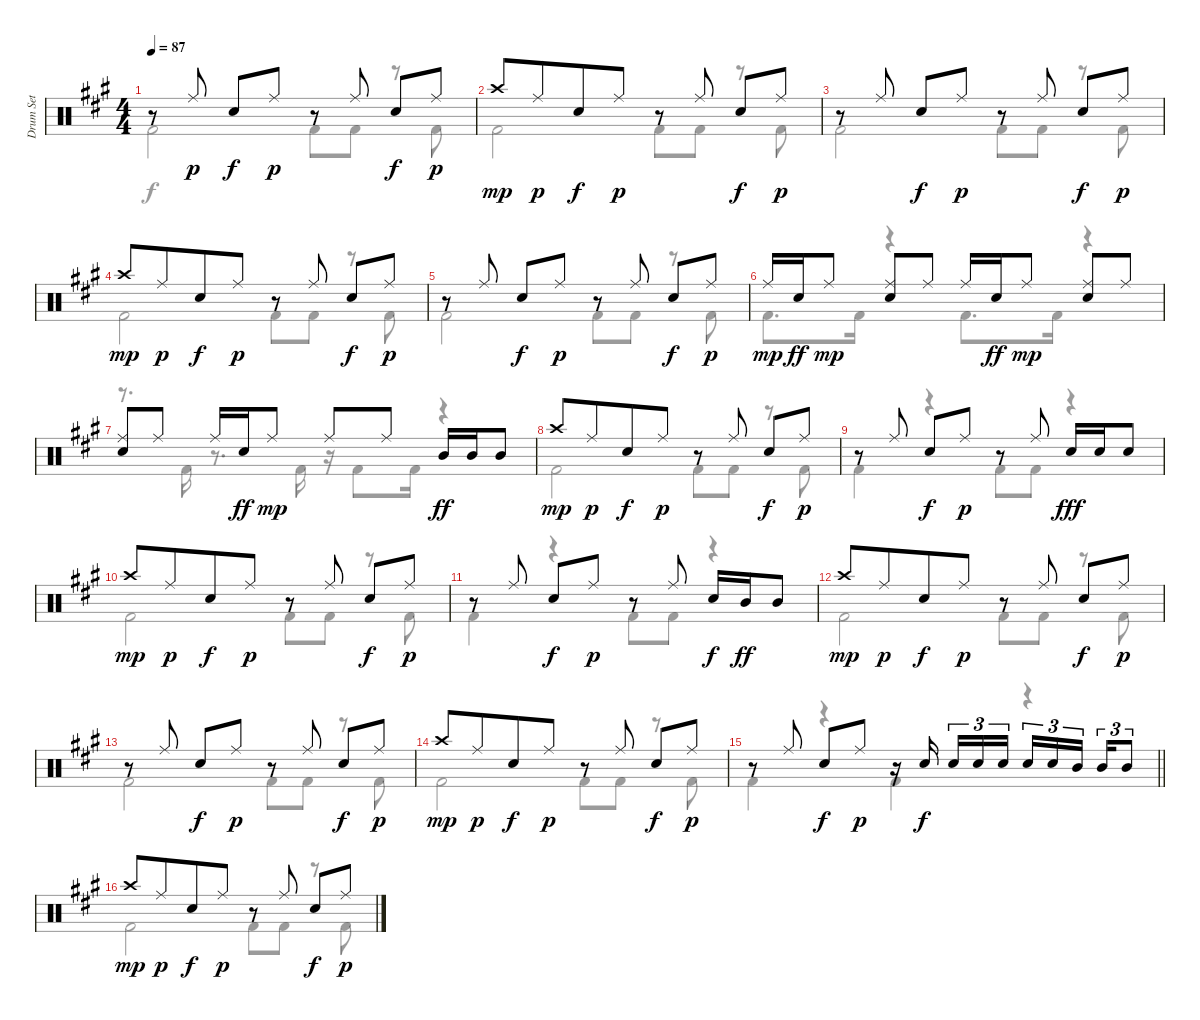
\track ("Drum Set" "Drum Set") {instrument percussion}
\staff {score}
\articulation defaults
\voice
\ts (4 4)
\tempo 87
\clef neutral
\ks f#minor
r.8{dy p} "Ride (middle)".8 "Electric Snare (hit)".8{dy f} "Ride (middle)".8{dy p} r.8 "Ride (middle)".8 "Electric Snare (hit)".8{dy f} "Ride (middle)".8{dy p} |
"Crash high (hit)".8{dy mp} "Ride (middle)".8{dy p beam merge} "Electric Snare (hit)".8{dy f} "Ride (middle)".8{dy p} r.8 "Ride (middle)".8 "Electric Snare (hit)".8{dy f} "Ride (middle)".8{dy p} |
r.8 "Ride (middle)".8 "Electric Snare (hit)".8{dy f} "Ride (middle)".8{dy p} r.8 "Ride (middle)".8 "Electric Snare (hit)".8{dy f} "Ride (middle)".8{dy p} |
"Crash high (hit)".8{dy mp} "Ride (middle)".8{dy p beam merge} "Electric Snare (hit)".8{dy f} "Ride (middle)".8{dy p} r.8 "Ride (middle)".8 "Electric Snare (hit)".8{dy f} "Ride (middle)".8{dy p} |
r.8 "Ride (middle)".8 "Electric Snare (hit)".8{dy f} "Ride (middle)".8{dy p} r.8 "Ride (middle)".8 "Electric Snare (hit)".8{dy f} "Ride (middle)".8{dy p} |
"Ride (middle)".16{dy mp} "Electric Snare (hit)".16{dy ff} "Ride (middle)".8{dy mp} ("Electric Snare (hit)" "Ride (middle)").8 "Ride (middle)".8 "Ride (middle)".16 "Electric Snare (hit)".16{dy ff} "Ride (middle)".8{dy mp} ("Electric Snare (hit)" "Ride (middle)").8 "Ride (middle)".8 |
("Electric Snare (hit)" "Ride (middle)").8 "Ride (middle)".8 "Ride (middle)".16 "Electric Snare (hit)".16{dy ff} "Ride (middle)".8{dy mp} "Ride (middle)".8 "Ride (middle)".8 "Mid Tom (hit)".16{dy ff} "Mid Tom (hit)".16 "Mid Tom (hit)".8 |
"Crash high (hit)".8{dy mp} "Ride (middle)".8{dy p beam merge} "Electric Snare (hit)".8{dy f} "Ride (middle)".8{dy p} r.8 "Ride (middle)".8 "Electric Snare (hit)".8{dy f} "Ride (middle)".8{dy p} |
r.8 "Ride (middle)".8 "Electric Snare (hit)".8{dy f} "Ride (middle)".8{dy p} r.8 "Ride (middle)".8 "Electric Snare (hit)".16{dy fff} "Electric Snare (hit)".16 "Electric Snare (hit)".8 |
"Crash high (hit)".8{dy mp} "Ride (middle)".8{dy p beam merge} "Electric Snare (hit)".8{dy f} "Ride (middle)".8{dy p} r.8 "Ride (middle)".8 "Electric Snare (hit)".8{dy f} "Ride (middle)".8{dy p} |
r.8 "Ride (middle)".8 "Electric Snare (hit)".8{dy f} "Ride (middle)".8{dy p} r.8 "Ride (middle)".8 "Electric Snare (hit)".16{dy f} "Mid Tom (hit)".16{dy ff} "Mid Tom (hit)".8 |
"Crash high (hit)".8{dy mp} "Ride (middle)".8{dy p beam merge} "Electric Snare (hit)".8{dy f} "Ride (middle)".8{dy p} r.8 "Ride (middle)".8 "Electric Snare (hit)".8{dy f} "Ride (middle)".8{dy p} |
r.8 "Ride (middle)".8 "Electric Snare (hit)".8{dy f} "Ride (middle)".8{dy p} r.8 "Ride (middle)".8 "Electric Snare (hit)".8{dy f} "Ride (middle)".8{dy p} |
"Crash high (hit)".8{dy mp} "Ride (middle)".8{dy p beam merge} "Electric Snare (hit)".8{dy f} "Ride (middle)".8{dy p} r.8 "Ride (middle)".8 "Electric Snare (hit)".8{dy f} "Ride (middle)".8{dy p} |
\barLineRight lightlight
r.8 "Ride (middle)".8 "Electric Snare (hit)".8{dy f} "Ride (middle)".8{dy p} r.16 "Electric Snare (hit)".16{dy f beam splitsecondary} "Electric Snare (hit)".16{tu (3 2)} "Electric Snare (hit)".16{tu (3 2)} "Electric Snare (hit)".16{tu (3 2)} "Electric Snare (hit)".16{tu (3 2)} "Electric Snare (hit)".16{tu (3 2)} "Mid Tom (hit)".16{tu (3 2) beam splitsecondary} "Mid Tom (hit)".16{tu (3 2)} "Mid Tom (hit)".8{tu (3 2)} |
"Crash high (hit)".8{dy mp} "Ride (middle)".8{dy p beam merge} "Electric Snare (hit)".8{dy f} "Ride (middle)".8{dy p} r.8 "Ride (middle)".8 "Electric Snare (hit)".8{dy f} "Ride (middle)".8{dy p}
\voice
\clef neutral
\ottava regular
\simile none
\ks f#minor "Kick (hit) 2".2{dy f} "Kick (hit) 2".8 "Kick (hit) 2".8
r.8 "Kick (hit) 2".8 |
"Kick (hit) 2".2 "Kick (hit) 2".8 "Kick (hit) 2".8 r.8 "Kick (hit) 2".8 |
"Kick (hit) 2".2 "Kick (hit) 2".8 "Kick (hit) 2".8 r.8 "Kick (hit) 2".8 |
"Kick (hit) 2".2 "Kick (hit) 2".8 "Kick (hit) 2".8 r.8 "Kick (hit) 2".8 |
"Kick (hit) 2".2 "Kick (hit) 2".8 "Kick (hit) 2".8 r.8 "Kick (hit) 2".8 |
"Kick (hit) 2".8{d} "Kick (hit) 2".16 r.4 "Kick (hit) 2".8{d} "Kick (hit) 2".16 r.4 |
r.8{d} "Kick (hit) 2".16 r.8{d} "Kick (hit) 2".16 r.16 "Kick (hit) 2".8 "Kick (hit) 2".16 r.4 |
"Kick (hit) 2".2 "Kick (hit) 2".8 "Kick (hit) 2".8 r.8 "Kick (hit) 2".8 |
"Kick (hit) 2".4 r.4 "Kick (hit) 2".8 "Kick (hit) 2".8 r.4 |
"Kick (hit) 2".2 "Kick (hit) 2".8 "Kick (hit) 2".8 r.8 "Kick (hit) 2".8 |
"Kick (hit) 2".4 r.4 "Kick (hit) 2".8 "Kick (hit) 2".8 r.4 |
"Kick (hit) 2".2 "Kick (hit) 2".8 "Kick (hit) 2".8 r.8 "Kick (hit) 2".8 |
"Kick (hit) 2".2 "Kick (hit) 2".8 "Kick (hit) 2".8 r.8 "Kick (hit) 2".8 |
"Kick (hit) 2".2 "Kick (hit) 2".8 "Kick (hit) 2".8 r.8 "Kick (hit) 2".8 |
\barLineRight lightlight "Kick (hit) 2".4
r.4 "Kick (hit) 2".4 r.4 |
"Kick (hit) 2".2 "Kick (hit) 2".8 "Kick (hit) 2".8 r.8 "Kick (hit) 2".8
